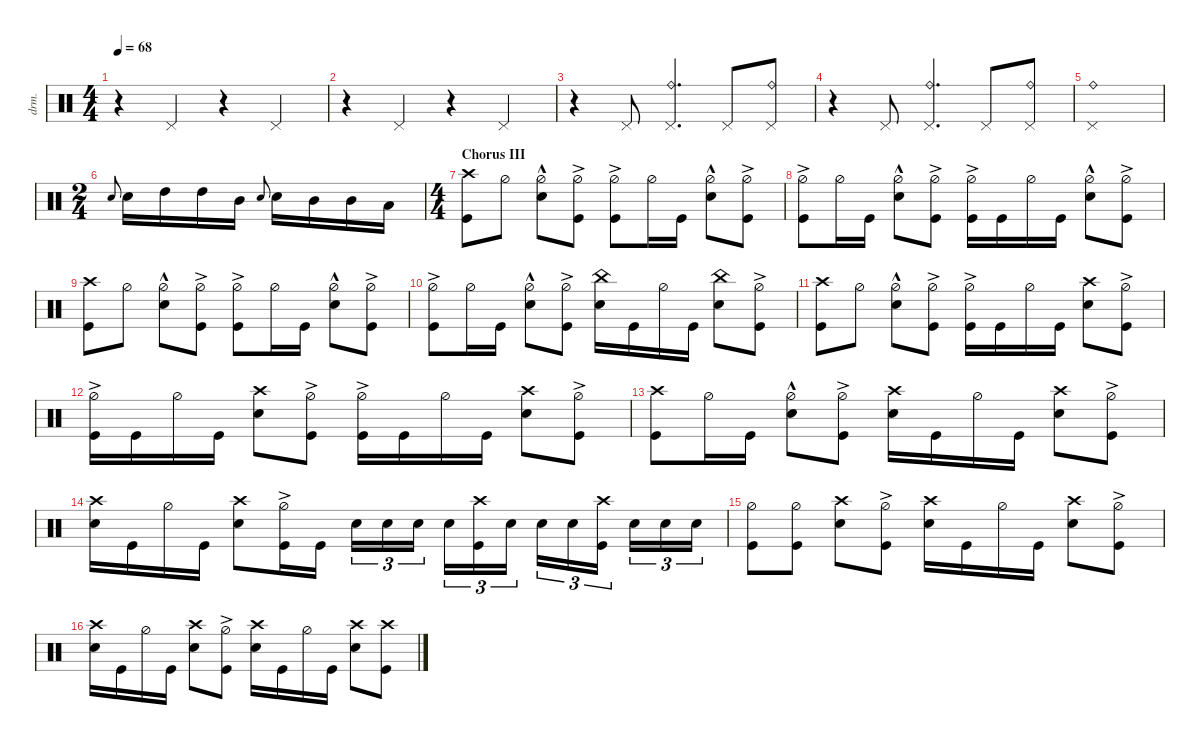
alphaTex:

\defaultSystemsLayout 4
\hideDynamics
\bracketExtendMode nobrackets
\otherSystemsTrackNameOrientation horizontal
\track ("Drums" "drm.") {defaultSystemsLayout 4 instrument percussion}
\staff
\articulation defaults
\ts (4 4)
\tempo 68
\clef neutral
\ks c
r.4{dy mf} "Pedal Hi-Hat (hit)".4 r.4 "Pedal Hi-Hat (hit)".4 |
r.4 "Pedal Hi-Hat (hit)".4 r.4 "Pedal Hi-Hat (hit)".4 |
r.4 "Pedal Hi-Hat (hit)".8 ("Ride (bell)" "Pedal Hi-Hat (hit)").4{d} "Pedal Hi-Hat (hit)".8 ("Ride (bell)" "Pedal Hi-Hat (hit)").8{dy pp} |
r.4 "Pedal Hi-Hat (hit)".8{dy mf} ("Ride (bell)" "Pedal Hi-Hat (hit)").4{d dy pp} "Pedal Hi-Hat (hit)".8{dy mf} ("Ride (bell)" "Pedal Hi-Hat (hit)").8{dy pp} |
("Ride (bell)" "Pedal Hi-Hat (hit)").1{dy mf} |
\ts (2 4)
\beaming (8 2 2)
"Snare (hit) 2".8{gr onbeat dy f} "Snare (hit) 2".16 "High Tom (hit)".16{dy ff} "High Tom (hit)".16 "Mid Tom (hit)".16 "Snare (hit) 2".8{gr onbeat dy f} "Snare (hit) 2".16 "Mid Tom (hit)".16{dy ff} "Mid Tom (hit)".16 "Low Tom (hit)".16 |
\ts (4 4)
\beaming (8 2 2 2 2)
\section ("" "Chorus III")
("Crash high (hit)" "Kick (hit)").8{dy f} "Hi-Hat (half)".8 ("Hi-Hat (half)"{hac} "Snare (hit) 2").8 ("Hi-Hat (half)"{ac} "Kick (hit)").8 ("Hi-Hat (half)"{ac} "Kick (hit)").8 "Hi-Hat (half)".16 "Kick (hit)".16 ("Hi-Hat (half)"{hac} "Snare (hit) 2").8 ("Hi-Hat (half)"{ac} "Kick (hit)").8 |
("Hi-Hat (half)"{ac} "Kick (hit)").8 "Hi-Hat (half)".16 "Kick (hit)".16 ("Hi-Hat (half)"{hac} "Snare (hit) 2").8 ("Hi-Hat (half)"{ac} "Kick (hit)").8 ("Hi-Hat (half)"{ac} "Kick (hit)").16 "Kick (hit)".16 "Hi-Hat (half)".16 "Kick (hit)".16 ("Hi-Hat (half)"{hac} "Snare (hit) 2").8 ("Hi-Hat (half)"{ac} "Kick (hit)").8 |
("Crash high (hit)" "Kick (hit)").8 "Hi-Hat (half)".8 ("Hi-Hat (half)"{hac} "Snare (hit) 2").8 ("Hi-Hat (half)"{ac} "Kick (hit)").8 ("Hi-Hat (half)"{ac} "Kick (hit)").8 "Hi-Hat (half)".16 "Kick (hit)".16 ("Hi-Hat (half)"{hac} "Snare (hit) 2").8 ("Hi-Hat (half)"{ac} "Kick (hit)").8 |
("Hi-Hat (half)"{ac} "Kick (hit)").8 "Hi-Hat (half)".16 "Kick (hit)".16 ("Snare (hit) 2" "Hi-Hat (half)"{hac}).8 ("Hi-Hat (half)"{ac} "Kick (hit)").8 ("Snare (hit) 2" "China (hit)").16 "Kick (hit)".16 "Hi-Hat (half)".16 "Kick (hit)".16 ("Snare (hit) 2" "China (hit)").8 ("Kick (hit)" "Hi-Hat (half)"{ac}).8 |
("Crash high (hit)" "Kick (hit)").8 "Hi-Hat (half)".8 ("Hi-Hat (half)"{hac} "Snare (hit) 2").8 ("Hi-Hat (half)"{ac} "Kick (hit)").8 ("Hi-Hat (half)"{ac} "Kick (hit)").16 "Kick (hit)".16 "Hi-Hat (half)".16 "Kick (hit)".16 ("Snare (hit) 2" "Crash high (hit)").8 ("Hi-Hat (half)"{ac} "Kick (hit)").8 |
("Hi-Hat (half)"{ac} "Kick (hit)").16 "Kick (hit)".16 "Hi-Hat (half)".16 "Kick (hit)".16 ("Snare (hit) 2" "Crash high (hit)").8 ("Hi-Hat (half)"{ac} "Kick (hit)").8 ("Hi-Hat (half)"{ac} "Kick (hit)").16 "Kick (hit)".16 "Hi-Hat (half)".16 "Kick (hit)".16 ("Snare (hit) 2" "Crash high (hit)").8 ("Hi-Hat (half)"{ac} "Kick (hit)").8 |
("Crash high (hit)" "Kick (hit)").8 "Hi-Hat (half)".16 "Kick (hit)".16 ("Hi-Hat (half)"{hac} "Snare (hit) 2").8 ("Hi-Hat (half)"{ac} "Kick (hit)").8 ("Snare (hit) 2" "Crash high (hit)").16 "Kick (hit)".16 "Hi-Hat (half)".16 "Kick (hit)".16 ("Snare (hit) 2" "Crash high (hit)").8 ("Kick (hit)" "Hi-Hat (half)"{ac}).8 |
("Snare (hit) 2" "Crash high (hit)").16 "Kick (hit)".16 "Hi-Hat (half)".16 "Kick (hit)".16 ("Snare (hit) 2" "Crash high (hit)").8 ("Kick (hit)" "Hi-Hat (half)"{ac}).16 "Kick (hit)".16 "Snare (hit) 2".16{tu (3 2) dy mf} "Snare (hit) 2".16{tu (3 2) dy mp} "Snare (hit) 2".16{tu (3 2)} "Snare (hit) 2".16{tu (3 2) dy mf} ("Kick (hit)" "Crash high (hit)").16{tu (3 2) dy f} "Snare (hit) 2".16{tu (3 2) dy mf} "Snare (hit) 2".16{tu (3 2) dy mp} "Snare (hit) 2".16{tu (3 2)} ("Kick (hit)" "Crash high (hit)").16{tu (3 2) dy f} "Snare (hit) 2".16{tu (3 2) dy mf} "Snare (hit) 2".16{tu (3 2)} "Snare (hit) 2".16{tu (3 2)} |
("Hi-Hat (half)" "Kick (hit)").8{dy f} ("Hi-Hat (half)" "Kick (hit)").8 ("Snare (hit) 2" "Crash high (hit)").8 ("Hi-Hat (half)"{ac} "Kick (hit)").8 ("Snare (hit) 2" "Crash high (hit)").16 "Kick (hit)".16 "Hi-Hat (half)".16 "Kick (hit)".16 ("Snare (hit) 2" "Crash high (hit)").8 ("Hi-Hat (half)"{ac} "Kick (hit)").8 |
("Snare (hit) 2" "Crash high (hit)").16 "Kick (hit)".16 "Hi-Hat (half)".16 "Kick (hit)".16 ("Snare (hit) 2" "Crash high (hit)").8 ("Hi-Hat (half)"{ac} "Kick (hit)").8 ("Snare (hit) 2" "Crash high (hit)").16 "Kick (hit)".16 "Hi-Hat (half)".16 "Kick (hit)".16 ("Snare (hit) 2" "Crash high (hit)").8 ("Kick (hit)" "Crash high (hit)").8
